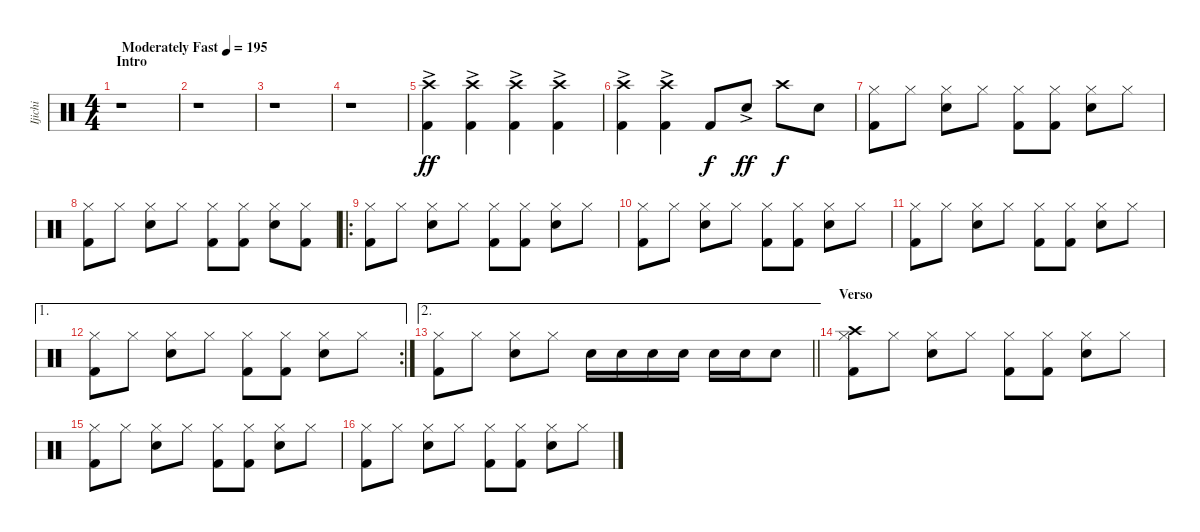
\track ("Ijichi" "Ijichi") {instrument percussion}
\staff {score}
\articulation defaults
\ts (4 4)
\section ("" "Intro")
\tempo (195 "Moderately Fast")
\clef neutral
\ks c
r.1{dy ff} |
r.1 |
r.1 |
r.1 |
("Crash high (hit)" "Kick (hit) 2"{ac}).4 ("Crash high (hit)" "Kick (hit) 2"{ac}).4 ("Crash high (hit)" "Kick (hit) 2"{ac}).4 ("Crash high (hit)" "Kick (hit) 2"{ac}).4 |
("Crash high (hit)" "Kick (hit) 2"{ac}).4 ("Crash high (hit)" "Kick (hit) 2"{ac}).4 "Kick (hit) 2".8{dy f} "Snare (hit) 2"{ac}.8{dy ff} "Crash high (hit)".8{dy f} "Snare (hit) 2".8 |
("Hi-Hat (closed)" "Kick (hit) 2").8 "Hi-Hat (closed)".8 ("Hi-Hat (closed)" "Snare (hit) 2").8 "Hi-Hat (closed)".8 ("Hi-Hat (closed)" "Kick (hit) 2").8 ("Hi-Hat (closed)" "Kick (hit) 2").8 ("Hi-Hat (closed)" "Snare (hit) 2").8 "Hi-Hat (closed)".8 |
("Hi-Hat (closed)" "Kick (hit) 2").8 "Hi-Hat (closed)".8 ("Hi-Hat (closed)" "Snare (hit) 2").8 "Hi-Hat (closed)".8 ("Hi-Hat (closed)" "Kick (hit) 2").8 ("Hi-Hat (closed)" "Kick (hit) 2").8 ("Hi-Hat (closed)" "Snare (hit) 2").8 ("Hi-Hat (closed)" "Kick (hit) 2").8 |
\ro
("Hi-Hat (closed)" "Kick (hit) 2").8 "Hi-Hat (closed)".8 ("Hi-Hat (closed)" "Snare (hit) 2").8 "Hi-Hat (closed)".8 ("Hi-Hat (closed)" "Kick (hit) 2").8 ("Hi-Hat (closed)" "Kick (hit) 2").8 ("Hi-Hat (closed)" "Snare (hit) 2").8 "Hi-Hat (closed)".8 |
("Hi-Hat (closed)" "Kick (hit) 2").8 "Hi-Hat (closed)".8 ("Hi-Hat (closed)" "Snare (hit) 2").8 "Hi-Hat (closed)".8 ("Hi-Hat (closed)" "Kick (hit) 2").8 ("Hi-Hat (closed)" "Kick (hit) 2").8 ("Hi-Hat (closed)" "Snare (hit) 2").8 "Hi-Hat (closed)".8 |
("Hi-Hat (closed)" "Kick (hit) 2").8 "Hi-Hat (closed)".8 ("Hi-Hat (closed)" "Snare (hit) 2").8 "Hi-Hat (closed)".8 ("Hi-Hat (closed)" "Kick (hit) 2").8 ("Hi-Hat (closed)" "Kick (hit) 2").8 ("Hi-Hat (closed)" "Snare (hit) 2").8 "Hi-Hat (closed)".8 |
\ae 1
\rc 2
("Hi-Hat (closed)" "Kick (hit) 2").8 "Hi-Hat (closed)".8 ("Hi-Hat (closed)" "Snare (hit) 2").8 "Hi-Hat (closed)".8 ("Hi-Hat (closed)" "Kick (hit) 2").8 ("Hi-Hat (closed)" "Kick (hit) 2").8 ("Hi-Hat (closed)" "Snare (hit) 2").8 "Hi-Hat (closed)".8 |
\ae 2
\barLineRight lightlight
("Hi-Hat (closed)" "Kick (hit) 2").8 "Hi-Hat (closed)".8 ("Hi-Hat (closed)" "Snare (hit) 2").8 "Hi-Hat (closed)".8 "Snare (hit) 2".16 "Snare (hit) 2".16 "Snare (hit) 2".16 "Snare (hit) 2".16 "Snare (hit) 2".16 "Snare (hit) 2".16 "Snare (hit) 2".8 |
\section ("" "Verso")
("Hi-Hat (closed)" "Kick (hit) 2" "Crash high (hit)").8 "Hi-Hat (closed)".8 ("Hi-Hat (closed)" "Snare (hit) 2").8 "Hi-Hat (closed)".8 ("Hi-Hat (closed)" "Kick (hit) 2").8 ("Hi-Hat (closed)" "Kick (hit) 2").8 ("Hi-Hat (closed)" "Snare (hit) 2").8 "Hi-Hat (closed)".8 |
("Hi-Hat (closed)" "Kick (hit) 2").8 "Hi-Hat (closed)".8 ("Hi-Hat (closed)" "Snare (hit) 2").8 "Hi-Hat (closed)".8 ("Hi-Hat (closed)" "Kick (hit) 2").8 ("Hi-Hat (closed)" "Kick (hit) 2").8 ("Hi-Hat (closed)" "Snare (hit) 2").8 "Hi-Hat (closed)".8 |
("Hi-Hat (closed)" "Kick (hit) 2").8 "Hi-Hat (closed)".8 ("Hi-Hat (closed)" "Snare (hit) 2").8 "Hi-Hat (closed)".8 ("Hi-Hat (closed)" "Kick (hit) 2").8 ("Hi-Hat (closed)" "Kick (hit) 2").8 ("Hi-Hat (closed)" "Snare (hit) 2").8 "Hi-Hat (closed)".8
